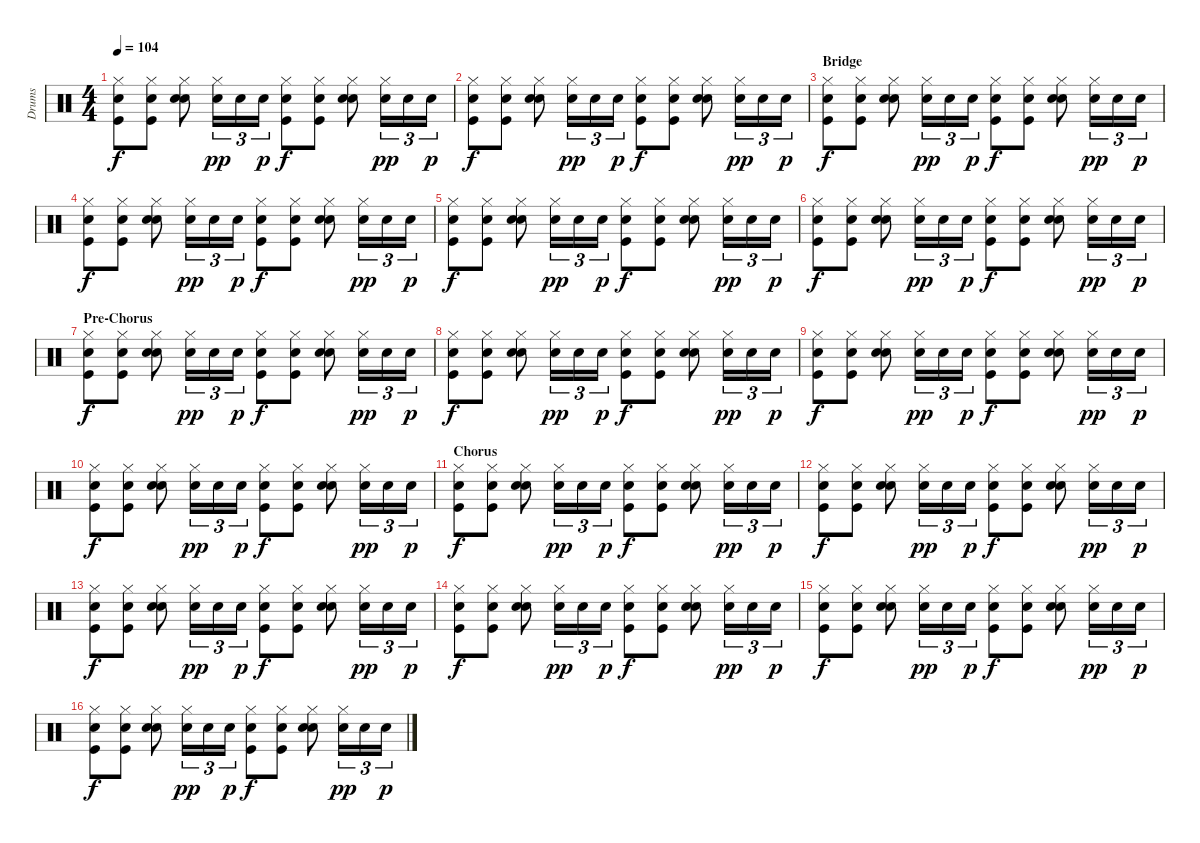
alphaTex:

\track ("Drums" "Drums") {instrument percussion}
\staff {score}
\articulation defaults
\ts (4 4)
\tempo 104
\clef neutral
\ks c
("Hi-Hat (closed)" "Electric Snare (hit)" "Kick (hit)").8{dy f} ("Hi-Hat (closed)" "Electric Snare (hit)" "Kick (hit)").8 ("Hi-Hat (closed)" "Hand Clap (hit)" "Electric Snare (hit)").8 ("Hi-Hat (closed)" "Electric Snare (hit)").16{tu (3 2) dy pp} "Electric Snare (hit)".16{tu (3 2)} "Electric Snare (hit)".16{tu (3 2) dy p} ("Hi-Hat (closed)" "Electric Snare (hit)" "Kick (hit)").8{dy f} ("Hi-Hat (closed)" "Electric Snare (hit)" "Kick (hit)").8 ("Hi-Hat (closed)" "Hand Clap (hit)" "Electric Snare (hit)").8 ("Hi-Hat (closed)" "Electric Snare (hit)").16{tu (3 2) dy pp} "Electric Snare (hit)".16{tu (3 2)} "Electric Snare (hit)".16{tu (3 2) dy p} |
("Hi-Hat (closed)" "Electric Snare (hit)" "Kick (hit)").8{dy f} ("Hi-Hat (closed)" "Electric Snare (hit)" "Kick (hit)").8 ("Hi-Hat (closed)" "Hand Clap (hit)" "Electric Snare (hit)").8 ("Hi-Hat (closed)" "Electric Snare (hit)").16{tu (3 2) dy pp} "Electric Snare (hit)".16{tu (3 2)} "Electric Snare (hit)".16{tu (3 2) dy p} ("Hi-Hat (closed)" "Electric Snare (hit)" "Kick (hit)").8{dy f} ("Hi-Hat (closed)" "Electric Snare (hit)" "Kick (hit)").8 ("Hi-Hat (closed)" "Hand Clap (hit)" "Electric Snare (hit)").8 ("Hi-Hat (closed)" "Electric Snare (hit)").16{tu (3 2) dy pp} "Electric Snare (hit)".16{tu (3 2)} "Electric Snare (hit)".16{tu (3 2) dy p} |
\section ("" "Bridge")
("Hi-Hat (closed)" "Electric Snare (hit)" "Kick (hit)").8{dy f} ("Hi-Hat (closed)" "Electric Snare (hit)" "Kick (hit)").8 ("Hi-Hat (closed)" "Hand Clap (hit)" "Electric Snare (hit)").8 ("Hi-Hat (closed)" "Electric Snare (hit)").16{tu (3 2) dy pp} "Electric Snare (hit)".16{tu (3 2)} "Electric Snare (hit)".16{tu (3 2) dy p} ("Hi-Hat (closed)" "Electric Snare (hit)" "Kick (hit)").8{dy f} ("Hi-Hat (closed)" "Electric Snare (hit)" "Kick (hit)").8 ("Hi-Hat (closed)" "Hand Clap (hit)" "Electric Snare (hit)").8 ("Hi-Hat (closed)" "Electric Snare (hit)").16{tu (3 2) dy pp} "Electric Snare (hit)".16{tu (3 2)} "Electric Snare (hit)".16{tu (3 2) dy p} |
("Hi-Hat (closed)" "Electric Snare (hit)" "Kick (hit)").8{dy f} ("Hi-Hat (closed)" "Electric Snare (hit)" "Kick (hit)").8 ("Hi-Hat (closed)" "Hand Clap (hit)" "Electric Snare (hit)").8 ("Hi-Hat (closed)" "Electric Snare (hit)").16{tu (3 2) dy pp} "Electric Snare (hit)".16{tu (3 2)} "Electric Snare (hit)".16{tu (3 2) dy p} ("Hi-Hat (closed)" "Electric Snare (hit)" "Kick (hit)").8{dy f} ("Hi-Hat (closed)" "Electric Snare (hit)" "Kick (hit)").8 ("Hi-Hat (closed)" "Hand Clap (hit)" "Electric Snare (hit)").8 ("Hi-Hat (closed)" "Electric Snare (hit)").16{tu (3 2) dy pp} "Electric Snare (hit)".16{tu (3 2)} "Electric Snare (hit)".16{tu (3 2) dy p} |
("Hi-Hat (closed)" "Electric Snare (hit)" "Kick (hit)").8{dy f} ("Hi-Hat (closed)" "Electric Snare (hit)" "Kick (hit)").8 ("Hi-Hat (closed)" "Hand Clap (hit)" "Electric Snare (hit)").8 ("Hi-Hat (closed)" "Electric Snare (hit)").16{tu (3 2) dy pp} "Electric Snare (hit)".16{tu (3 2)} "Electric Snare (hit)".16{tu (3 2) dy p} ("Hi-Hat (closed)" "Electric Snare (hit)" "Kick (hit)").8{dy f} ("Hi-Hat (closed)" "Electric Snare (hit)" "Kick (hit)").8 ("Hi-Hat (closed)" "Hand Clap (hit)" "Electric Snare (hit)").8 ("Hi-Hat (closed)" "Electric Snare (hit)").16{tu (3 2) dy pp} "Electric Snare (hit)".16{tu (3 2)} "Electric Snare (hit)".16{tu (3 2) dy p} |
("Hi-Hat (closed)" "Electric Snare (hit)" "Kick (hit)").8{dy f} ("Hi-Hat (closed)" "Electric Snare (hit)" "Kick (hit)").8 ("Hi-Hat (closed)" "Hand Clap (hit)" "Electric Snare (hit)").8 ("Hi-Hat (closed)" "Electric Snare (hit)").16{tu (3 2) dy pp} "Electric Snare (hit)".16{tu (3 2)} "Electric Snare (hit)".16{tu (3 2) dy p} ("Hi-Hat (closed)" "Electric Snare (hit)" "Kick (hit)").8{dy f} ("Hi-Hat (closed)" "Electric Snare (hit)" "Kick (hit)").8 ("Hi-Hat (closed)" "Hand Clap (hit)" "Electric Snare (hit)").8 ("Hi-Hat (closed)" "Electric Snare (hit)").16{tu (3 2) dy pp} "Electric Snare (hit)".16{tu (3 2)} "Electric Snare (hit)".16{tu (3 2) dy p} |
\section ("" "Pre-Chorus")
("Hi-Hat (closed)" "Electric Snare (hit)" "Kick (hit)").8{dy f} ("Hi-Hat (closed)" "Electric Snare (hit)" "Kick (hit)").8 ("Hi-Hat (closed)" "Hand Clap (hit)" "Electric Snare (hit)").8 ("Hi-Hat (closed)" "Electric Snare (hit)").16{tu (3 2) dy pp} "Electric Snare (hit)".16{tu (3 2)} "Electric Snare (hit)".16{tu (3 2) dy p} ("Hi-Hat (closed)" "Electric Snare (hit)" "Kick (hit)").8{dy f} ("Hi-Hat (closed)" "Electric Snare (hit)" "Kick (hit)").8 ("Hi-Hat (closed)" "Hand Clap (hit)" "Electric Snare (hit)").8 ("Hi-Hat (closed)" "Electric Snare (hit)").16{tu (3 2) dy pp} "Electric Snare (hit)".16{tu (3 2)} "Electric Snare (hit)".16{tu (3 2) dy p} |
("Hi-Hat (closed)" "Electric Snare (hit)" "Kick (hit)").8{dy f} ("Hi-Hat (closed)" "Electric Snare (hit)" "Kick (hit)").8 ("Hi-Hat (closed)" "Hand Clap (hit)" "Electric Snare (hit)").8 ("Hi-Hat (closed)" "Electric Snare (hit)").16{tu (3 2) dy pp} "Electric Snare (hit)".16{tu (3 2)} "Electric Snare (hit)".16{tu (3 2) dy p} ("Hi-Hat (closed)" "Electric Snare (hit)" "Kick (hit)").8{dy f} ("Hi-Hat (closed)" "Electric Snare (hit)" "Kick (hit)").8 ("Hi-Hat (closed)" "Hand Clap (hit)" "Electric Snare (hit)").8 ("Hi-Hat (closed)" "Electric Snare (hit)").16{tu (3 2) dy pp} "Electric Snare (hit)".16{tu (3 2)} "Electric Snare (hit)".16{tu (3 2) dy p} |
("Hi-Hat (closed)" "Electric Snare (hit)" "Kick (hit)").8{dy f} ("Hi-Hat (closed)" "Electric Snare (hit)" "Kick (hit)").8 ("Hi-Hat (closed)" "Hand Clap (hit)" "Electric Snare (hit)").8 ("Hi-Hat (closed)" "Electric Snare (hit)").16{tu (3 2) dy pp} "Electric Snare (hit)".16{tu (3 2)} "Electric Snare (hit)".16{tu (3 2) dy p} ("Hi-Hat (closed)" "Electric Snare (hit)" "Kick (hit)").8{dy f} ("Hi-Hat (closed)" "Electric Snare (hit)" "Kick (hit)").8 ("Hi-Hat (closed)" "Hand Clap (hit)" "Electric Snare (hit)").8 ("Hi-Hat (closed)" "Electric Snare (hit)").16{tu (3 2) dy pp} "Electric Snare (hit)".16{tu (3 2)} "Electric Snare (hit)".16{tu (3 2) dy p} |
("Hi-Hat (closed)" "Electric Snare (hit)" "Kick (hit)").8{dy f} ("Hi-Hat (closed)" "Electric Snare (hit)" "Kick (hit)").8 ("Hi-Hat (closed)" "Hand Clap (hit)" "Electric Snare (hit)").8 ("Hi-Hat (closed)" "Electric Snare (hit)").16{tu (3 2) dy pp} "Electric Snare (hit)".16{tu (3 2)} "Electric Snare (hit)".16{tu (3 2) dy p} ("Hi-Hat (closed)" "Electric Snare (hit)" "Kick (hit)").8{dy f} ("Hi-Hat (closed)" "Electric Snare (hit)" "Kick (hit)").8 ("Hi-Hat (closed)" "Hand Clap (hit)" "Electric Snare (hit)").8 ("Hi-Hat (closed)" "Electric Snare (hit)").16{tu (3 2) dy pp} "Electric Snare (hit)".16{tu (3 2)} "Electric Snare (hit)".16{tu (3 2) dy p} |
\section ("" "Chorus")
("Hi-Hat (closed)" "Electric Snare (hit)" "Kick (hit)").8{dy f} ("Hi-Hat (closed)" "Electric Snare (hit)" "Kick (hit)").8 ("Hi-Hat (closed)" "Hand Clap (hit)" "Electric Snare (hit)").8 ("Hi-Hat (closed)" "Electric Snare (hit)").16{tu (3 2) dy pp} "Electric Snare (hit)".16{tu (3 2)} "Electric Snare (hit)".16{tu (3 2) dy p} ("Hi-Hat (closed)" "Electric Snare (hit)" "Kick (hit)").8{dy f} ("Hi-Hat (closed)" "Electric Snare (hit)" "Kick (hit)").8 ("Hi-Hat (closed)" "Hand Clap (hit)" "Electric Snare (hit)").8 ("Hi-Hat (closed)" "Electric Snare (hit)").16{tu (3 2) dy pp} "Electric Snare (hit)".16{tu (3 2)} "Electric Snare (hit)".16{tu (3 2) dy p} |
("Hi-Hat (closed)" "Electric Snare (hit)" "Kick (hit)").8{dy f} ("Hi-Hat (closed)" "Electric Snare (hit)" "Kick (hit)").8 ("Hi-Hat (closed)" "Hand Clap (hit)" "Electric Snare (hit)").8 ("Hi-Hat (closed)" "Electric Snare (hit)").16{tu (3 2) dy pp} "Electric Snare (hit)".16{tu (3 2)} "Electric Snare (hit)".16{tu (3 2) dy p} ("Hi-Hat (closed)" "Electric Snare (hit)" "Kick (hit)").8{dy f} ("Hi-Hat (closed)" "Electric Snare (hit)" "Kick (hit)").8 ("Hi-Hat (closed)" "Hand Clap (hit)" "Electric Snare (hit)").8 ("Hi-Hat (closed)" "Electric Snare (hit)").16{tu (3 2) dy pp} "Electric Snare (hit)".16{tu (3 2)} "Electric Snare (hit)".16{tu (3 2) dy p} |
("Hi-Hat (closed)" "Electric Snare (hit)" "Kick (hit)").8{dy f} ("Hi-Hat (closed)" "Electric Snare (hit)" "Kick (hit)").8 ("Hi-Hat (closed)" "Hand Clap (hit)" "Electric Snare (hit)").8 ("Hi-Hat (closed)" "Electric Snare (hit)").16{tu (3 2) dy pp} "Electric Snare (hit)".16{tu (3 2)} "Electric Snare (hit)".16{tu (3 2) dy p} ("Hi-Hat (closed)" "Electric Snare (hit)" "Kick (hit)").8{dy f} ("Hi-Hat (closed)" "Electric Snare (hit)" "Kick (hit)").8 ("Hi-Hat (closed)" "Hand Clap (hit)" "Electric Snare (hit)").8 ("Hi-Hat (closed)" "Electric Snare (hit)").16{tu (3 2) dy pp} "Electric Snare (hit)".16{tu (3 2)} "Electric Snare (hit)".16{tu (3 2) dy p} |
("Hi-Hat (closed)" "Electric Snare (hit)" "Kick (hit)").8{dy f} ("Hi-Hat (closed)" "Electric Snare (hit)" "Kick (hit)").8 ("Hi-Hat (closed)" "Hand Clap (hit)" "Electric Snare (hit)").8 ("Hi-Hat (closed)" "Electric Snare (hit)").16{tu (3 2) dy pp} "Electric Snare (hit)".16{tu (3 2)} "Electric Snare (hit)".16{tu (3 2) dy p} ("Hi-Hat (closed)" "Electric Snare (hit)" "Kick (hit)").8{dy f} ("Hi-Hat (closed)" "Electric Snare (hit)" "Kick (hit)").8 ("Hi-Hat (closed)" "Hand Clap (hit)" "Electric Snare (hit)").8 ("Hi-Hat (closed)" "Electric Snare (hit)").16{tu (3 2) dy pp} "Electric Snare (hit)".16{tu (3 2)} "Electric Snare (hit)".16{tu (3 2) dy p} |
("Hi-Hat (closed)" "Electric Snare (hit)" "Kick (hit)").8{dy f} ("Hi-Hat (closed)" "Electric Snare (hit)" "Kick (hit)").8 ("Hi-Hat (closed)" "Hand Clap (hit)" "Electric Snare (hit)").8 ("Hi-Hat (closed)" "Electric Snare (hit)").16{tu (3 2) dy pp} "Electric Snare (hit)".16{tu (3 2)} "Electric Snare (hit)".16{tu (3 2) dy p} ("Hi-Hat (closed)" "Electric Snare (hit)" "Kick (hit)").8{dy f} ("Hi-Hat (closed)" "Electric Snare (hit)" "Kick (hit)").8 ("Hi-Hat (closed)" "Hand Clap (hit)" "Electric Snare (hit)").8 ("Hi-Hat (closed)" "Electric Snare (hit)").16{tu (3 2) dy pp} "Electric Snare (hit)".16{tu (3 2)} "Electric Snare (hit)".16{tu (3 2) dy p} |
("Hi-Hat (closed)" "Electric Snare (hit)" "Kick (hit)").8{dy f} ("Hi-Hat (closed)" "Electric Snare (hit)" "Kick (hit)").8 ("Hi-Hat (closed)" "Hand Clap (hit)" "Electric Snare (hit)").8 ("Hi-Hat (closed)" "Electric Snare (hit)").16{tu (3 2) dy pp} "Electric Snare (hit)".16{tu (3 2)} "Electric Snare (hit)".16{tu (3 2) dy p} ("Hi-Hat (closed)" "Electric Snare (hit)" "Kick (hit)").8{dy f} ("Hi-Hat (closed)" "Electric Snare (hit)" "Kick (hit)").8 ("Hi-Hat (closed)" "Hand Clap (hit)" "Electric Snare (hit)").8 ("Hi-Hat (closed)" "Electric Snare (hit)").16{tu (3 2) dy pp} "Electric Snare (hit)".16{tu (3 2)} "Electric Snare (hit)".16{tu (3 2) dy p}
